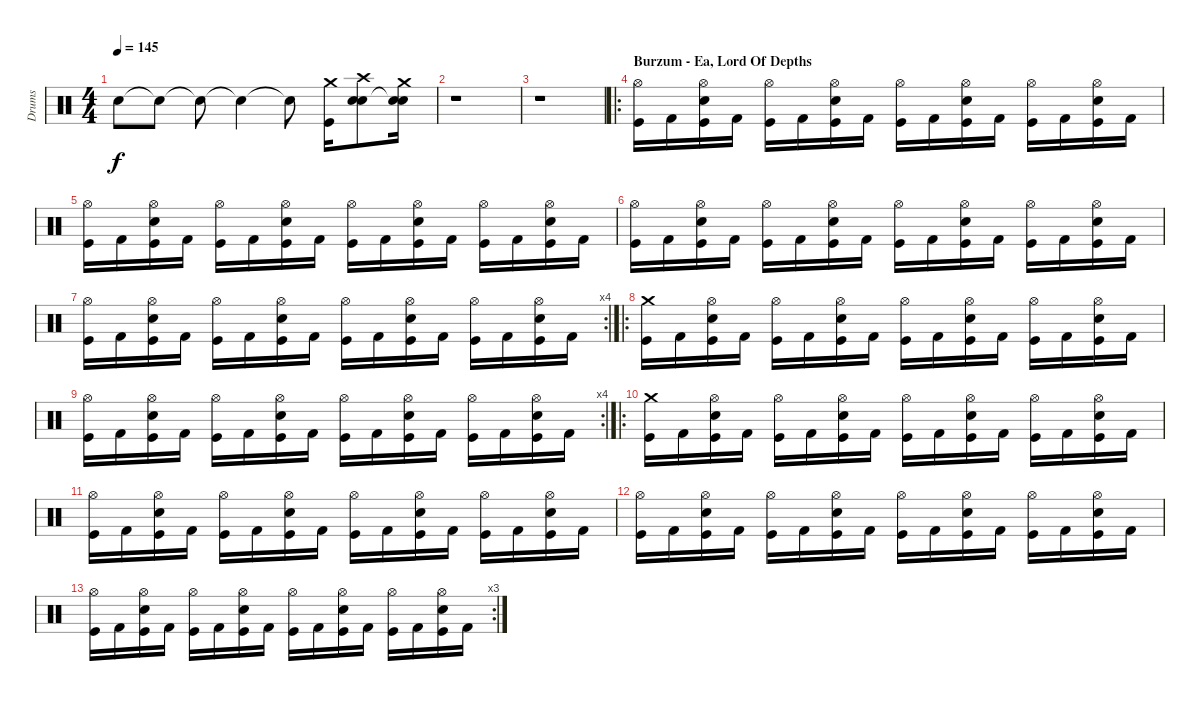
\track ("Drums" "Drums") {instrument percussion}
\staff {score}
\articulation defaults
\ts (4 4)
\tempo 145
\clef neutral
\ks c "Snare (hit)"{t}.8{dy f} "Snare (hit)"{t}.8 "Snare (hit)"{t}.8 "Snare (hit)"{t}.4 "Snare (hit)"{t}.8
("Crash medium (hit)" "Kick (hit)").16 ("Crash high (hit)" "Electric Snare (hit)" "Snare (hit)").8 ("Crash medium (hit)" "Electric Snare (hit)" "Snare (hit)"{t}).16 |
r.1 |
r.1 |
\ro
\section ("" "Burzum - Ea, Lord Of Depths")
("Hi-Hat (open)" "Kick (hit)").16 "Kick (hit) 2".16 ("Hi-Hat (open)" "Electric Snare (hit)" "Kick (hit)").16 "Kick (hit) 2".16 ("Hi-Hat (open)" "Kick (hit)").16 "Kick (hit) 2".16 ("Hi-Hat (open)" "Electric Snare (hit)" "Kick (hit)").16 "Kick (hit) 2".16 ("Hi-Hat (open)" "Kick (hit)").16 "Kick (hit) 2".16 ("Hi-Hat (open)" "Electric Snare (hit)" "Kick (hit)").16 "Kick (hit) 2".16 ("Hi-Hat (open)" "Kick (hit)").16 "Kick (hit) 2".16 ("Hi-Hat (open)" "Electric Snare (hit)" "Kick (hit)").16 "Kick (hit) 2".16 |
("Hi-Hat (open)" "Kick (hit)").16 "Kick (hit) 2".16 ("Hi-Hat (open)" "Electric Snare (hit)" "Kick (hit)").16 "Kick (hit) 2".16 ("Hi-Hat (open)" "Kick (hit)").16 "Kick (hit) 2".16 ("Hi-Hat (open)" "Electric Snare (hit)" "Kick (hit)").16 "Kick (hit) 2".16 ("Hi-Hat (open)" "Kick (hit)").16 "Kick (hit) 2".16 ("Hi-Hat (open)" "Electric Snare (hit)" "Kick (hit)").16 "Kick (hit) 2".16 ("Hi-Hat (open)" "Kick (hit)").16 "Kick (hit) 2".16 ("Hi-Hat (open)" "Electric Snare (hit)" "Kick (hit)").16 "Kick (hit) 2".16 |
("Hi-Hat (open)" "Kick (hit)").16 "Kick (hit) 2".16 ("Hi-Hat (open)" "Electric Snare (hit)" "Kick (hit)").16 "Kick (hit) 2".16 ("Hi-Hat (open)" "Kick (hit)").16 "Kick (hit) 2".16 ("Hi-Hat (open)" "Electric Snare (hit)" "Kick (hit)").16 "Kick (hit) 2".16 ("Hi-Hat (open)" "Kick (hit)").16 "Kick (hit) 2".16 ("Hi-Hat (open)" "Electric Snare (hit)" "Kick (hit)").16 "Kick (hit) 2".16 ("Hi-Hat (open)" "Kick (hit)").16 "Kick (hit) 2".16 ("Hi-Hat (open)" "Electric Snare (hit)" "Kick (hit)").16 "Kick (hit) 2".16 |
\rc 4
("Hi-Hat (open)" "Kick (hit)").16 "Kick (hit) 2".16 ("Hi-Hat (open)" "Electric Snare (hit)" "Kick (hit)").16 "Kick (hit) 2".16 ("Hi-Hat (open)" "Kick (hit)").16 "Kick (hit) 2".16 ("Hi-Hat (open)" "Electric Snare (hit)" "Kick (hit)").16 "Kick (hit) 2".16 ("Hi-Hat (open)" "Kick (hit)").16 "Kick (hit) 2".16 ("Hi-Hat (open)" "Electric Snare (hit)" "Kick (hit)").16 "Kick (hit) 2".16 ("Hi-Hat (open)" "Kick (hit)").16 "Kick (hit) 2".16 ("Hi-Hat (open)" "Electric Snare (hit)" "Kick (hit)").16 "Kick (hit) 2".16 |
\ro
("Crash medium (hit)" "Kick (hit)").16 "Kick (hit) 2".16 ("Hi-Hat (open)" "Electric Snare (hit)" "Kick (hit)").16 "Kick (hit) 2".16 ("Hi-Hat (open)" "Kick (hit)").16 "Kick (hit) 2".16 ("Hi-Hat (open)" "Electric Snare (hit)" "Kick (hit)").16 "Kick (hit) 2".16 ("Hi-Hat (open)" "Kick (hit)").16 "Kick (hit) 2".16 ("Hi-Hat (open)" "Electric Snare (hit)" "Kick (hit)").16 "Kick (hit) 2".16 ("Hi-Hat (open)" "Kick (hit)").16 "Kick (hit) 2".16 ("Hi-Hat (open)" "Electric Snare (hit)" "Kick (hit)").16 "Kick (hit) 2".16 |
\rc 4
("Hi-Hat (open)" "Kick (hit)").16 "Kick (hit) 2".16 ("Hi-Hat (open)" "Electric Snare (hit)" "Kick (hit)").16 "Kick (hit) 2".16 ("Hi-Hat (open)" "Kick (hit)").16 "Kick (hit) 2".16 ("Hi-Hat (open)" "Electric Snare (hit)" "Kick (hit)").16 "Kick (hit) 2".16 ("Hi-Hat (open)" "Kick (hit)").16 "Kick (hit) 2".16 ("Hi-Hat (open)" "Electric Snare (hit)" "Kick (hit)").16 "Kick (hit) 2".16 ("Hi-Hat (open)" "Kick (hit)").16 "Kick (hit) 2".16 ("Hi-Hat (open)" "Electric Snare (hit)" "Kick (hit)").16 "Kick (hit) 2".16 |
\ro
("Crash medium (hit)" "Kick (hit)").16 "Kick (hit) 2".16 ("Hi-Hat (open)" "Electric Snare (hit)" "Kick (hit)").16 "Kick (hit) 2".16 ("Hi-Hat (open)" "Kick (hit)").16 "Kick (hit) 2".16 ("Hi-Hat (open)" "Electric Snare (hit)" "Kick (hit)").16 "Kick (hit) 2".16 ("Hi-Hat (open)" "Kick (hit)").16 "Kick (hit) 2".16 ("Hi-Hat (open)" "Electric Snare (hit)" "Kick (hit)").16 "Kick (hit) 2".16 ("Hi-Hat (open)" "Kick (hit)").16 "Kick (hit) 2".16 ("Hi-Hat (open)" "Electric Snare (hit)" "Kick (hit)").16 "Kick (hit) 2".16 |
("Hi-Hat (open)" "Kick (hit)").16 "Kick (hit) 2".16 ("Hi-Hat (open)" "Electric Snare (hit)" "Kick (hit)").16 "Kick (hit) 2".16 ("Hi-Hat (open)" "Kick (hit)").16 "Kick (hit) 2".16 ("Hi-Hat (open)" "Electric Snare (hit)" "Kick (hit)").16 "Kick (hit) 2".16 ("Hi-Hat (open)" "Kick (hit)").16 "Kick (hit) 2".16 ("Hi-Hat (open)" "Electric Snare (hit)" "Kick (hit)").16 "Kick (hit) 2".16 ("Hi-Hat (open)" "Kick (hit)").16 "Kick (hit) 2".16 ("Hi-Hat (open)" "Electric Snare (hit)" "Kick (hit)").16 "Kick (hit) 2".16 |
("Hi-Hat (open)" "Kick (hit)").16 "Kick (hit) 2".16 ("Hi-Hat (open)" "Electric Snare (hit)" "Kick (hit)").16 "Kick (hit) 2".16 ("Hi-Hat (open)" "Kick (hit)").16 "Kick (hit) 2".16 ("Hi-Hat (open)" "Electric Snare (hit)" "Kick (hit)").16 "Kick (hit) 2".16 ("Hi-Hat (open)" "Kick (hit)").16 "Kick (hit) 2".16 ("Hi-Hat (open)" "Electric Snare (hit)" "Kick (hit)").16 "Kick (hit) 2".16 ("Hi-Hat (open)" "Kick (hit)").16 "Kick (hit) 2".16 ("Hi-Hat (open)" "Electric Snare (hit)" "Kick (hit)").16 "Kick (hit) 2".16 |
\rc 3
("Hi-Hat (open)" "Kick (hit)").16 "Kick (hit) 2".16 ("Hi-Hat (open)" "Electric Snare (hit)" "Kick (hit)").16 "Kick (hit) 2".16 ("Hi-Hat (open)" "Kick (hit)").16 "Kick (hit) 2".16 ("Hi-Hat (open)" "Electric Snare (hit)" "Kick (hit)").16 "Kick (hit) 2".16 ("Hi-Hat (open)" "Kick (hit)").16 "Kick (hit) 2".16 ("Hi-Hat (open)" "Electric Snare (hit)" "Kick (hit)").16 "Kick (hit) 2".16 ("Hi-Hat (open)" "Kick (hit)").16 "Kick (hit) 2".16 ("Hi-Hat (open)" "Electric Snare (hit)" "Kick (hit)").16 "Kick (hit) 2".16
